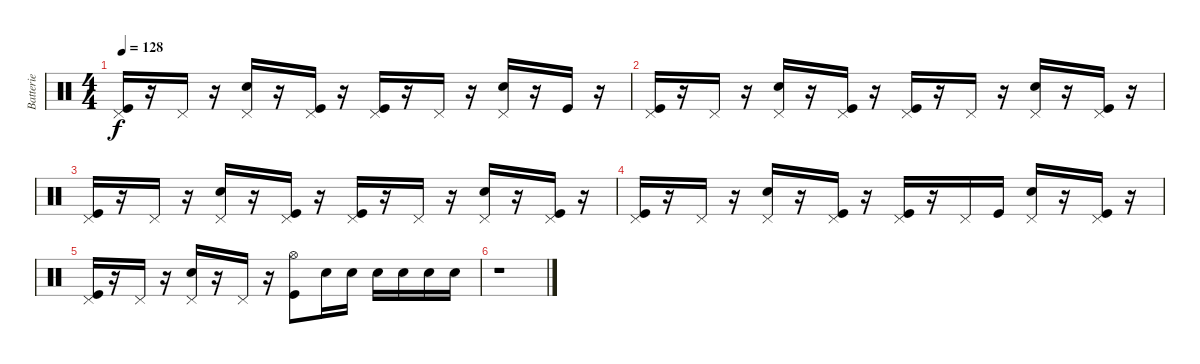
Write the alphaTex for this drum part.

\track ("Batterie" "Batterie") {instrument percussion}
\staff {score}
\articulation defaults
\ts (4 4)
\tempo 128
\clef neutral
\ks c
("Pedal Hi-Hat (hit)" "Kick (hit)").16{dy f volume 7} r.16 "Pedal Hi-Hat (hit)".16{volume 7} r.16 ("Pedal Hi-Hat (hit)" "Snare (hit) 2").16{volume 7} r.16 ("Pedal Hi-Hat (hit)" "Kick (hit)").16{volume 7} r.16 ("Pedal Hi-Hat (hit)" "Kick (hit)").16{volume 6} r.16 "Pedal Hi-Hat (hit)".16{volume 6} r.16 ("Pedal Hi-Hat (hit)" "Snare (hit) 2").16{volume 6} r.16 "Kick (hit)".16{volume 6} r.16 |
("Pedal Hi-Hat (hit)" "Kick (hit)").16{volume 6} r.16 "Pedal Hi-Hat (hit)".16{volume 6} r.16 ("Pedal Hi-Hat (hit)" "Snare (hit) 2").16{volume 6} r.16 ("Kick (hit)" "Pedal Hi-Hat (hit)").16{volume 5} r.16 ("Pedal Hi-Hat (hit)" "Kick (hit)").16{volume 5} r.16 "Pedal Hi-Hat (hit)".16{volume 5} r.16 ("Pedal Hi-Hat (hit)" "Snare (hit) 2").16{volume 5} r.16 ("Kick (hit)" "Pedal Hi-Hat (hit)").16{volume 5} r.16 |
("Pedal Hi-Hat (hit)" "Kick (hit)").16{volume 4} r.16 "Pedal Hi-Hat (hit)".16{volume 4} r.16 ("Pedal Hi-Hat (hit)" "Snare (hit) 2").16{volume 4} r.16 ("Pedal Hi-Hat (hit)" "Kick (hit)").16{volume 4} r.16 ("Pedal Hi-Hat (hit)" "Kick (hit)").16{volume 4} r.16 "Pedal Hi-Hat (hit)".16{volume 4} r.16 ("Pedal Hi-Hat (hit)" "Snare (hit) 2").16{volume 3} r.16 ("Pedal Hi-Hat (hit)" "Kick (hit)").16{volume 3} r.16 |
("Pedal Hi-Hat (hit)" "Kick (hit)").16{volume 3} r.16 "Pedal Hi-Hat (hit)".16{volume 3} r.16 ("Pedal Hi-Hat (hit)" "Snare (hit) 2").16{volume 3} r.16 ("Kick (hit)" "Pedal Hi-Hat (hit)").16{volume 2} r.16 ("Pedal Hi-Hat (hit)" "Kick (hit)").16{volume 2} r.16 "Pedal Hi-Hat (hit)".16{volume 2} "Kick (hit)".16 ("Pedal Hi-Hat (hit)" "Snare (hit) 2").16{volume 2} r.16 ("Kick (hit)" "Pedal Hi-Hat (hit)").16{volume 2} r.16 |
("Pedal Hi-Hat (hit)" "Kick (hit)").16{volume 2} r.16 "Pedal Hi-Hat (hit)".16{volume 1} r.16 ("Pedal Hi-Hat (hit)" "Snare (hit) 2").16{volume 1} r.16 "Pedal Hi-Hat (hit)".16{volume 1} r.16 ("Hi-Hat (open)" "Kick (hit)").8{volume 1} "Snare (hit) 2".16{volume 1} "Snare (hit) 2".16{volume 0} "Snare (hit) 2".16{volume 0} "Snare (hit) 2".16 "Snare (hit) 2".16{volume 0} "Snare (hit) 2".16{volume 0} |
r.1
